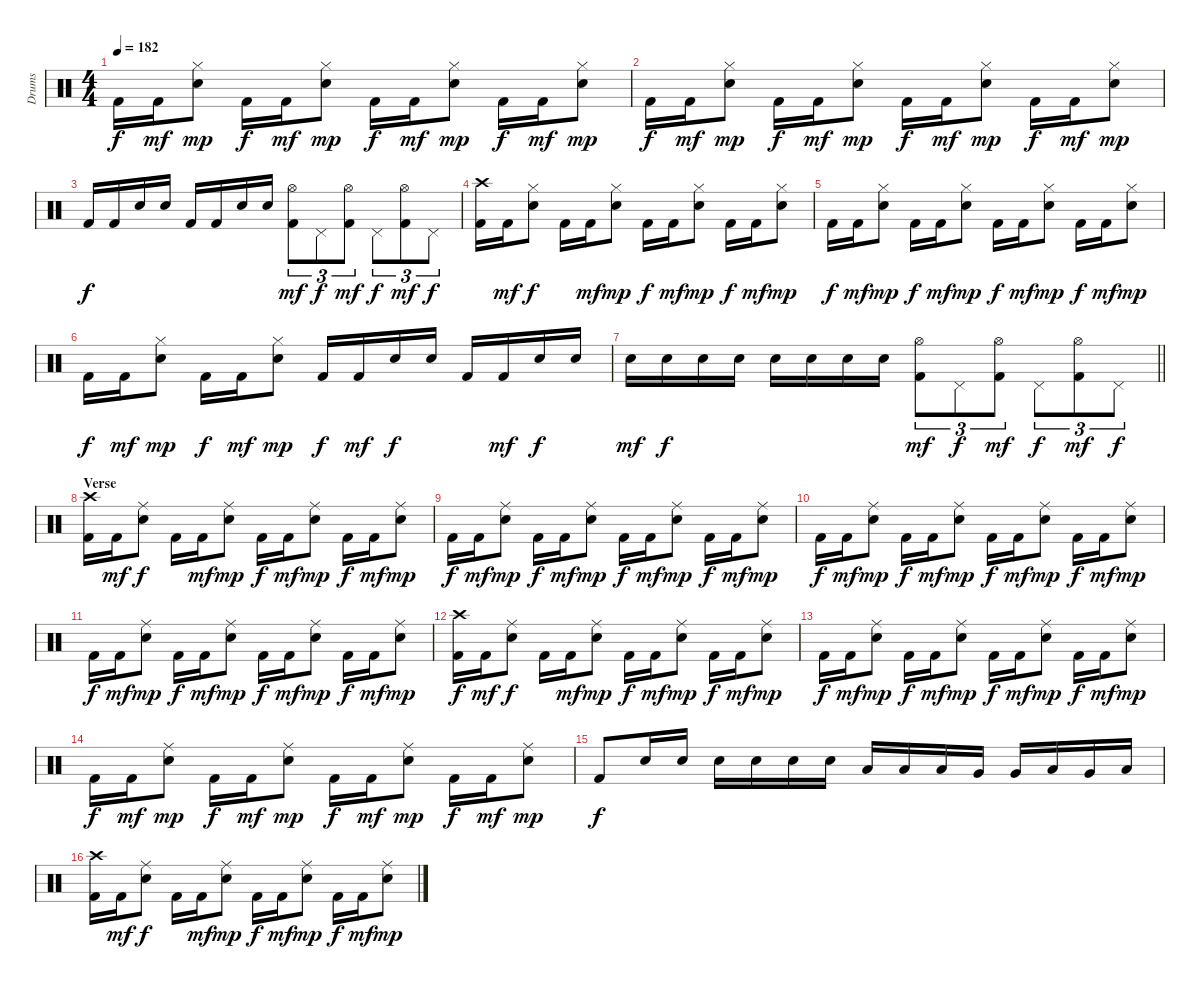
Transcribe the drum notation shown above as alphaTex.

\track ("Drums" "Drums") {instrument percussion}
\staff {score}
\articulation defaults
\ts (4 4)
\tempo 182
\clef neutral
\ks c "Kick (hit) 2".16{dy f} "Kick (hit) 2".16{dy mf}
("Hi-Hat (closed)" "Snare (hit) 2").8{dy mp} "Kick (hit) 2".16{dy f} "Kick (hit) 2".16{dy mf} ("Hi-Hat (closed)" "Snare (hit) 2").8{dy mp} "Kick (hit) 2".16{dy f} "Kick (hit) 2".16{dy mf} ("Hi-Hat (closed)" "Snare (hit) 2").8{dy mp} "Kick (hit) 2".16{dy f} "Kick (hit) 2".16{dy mf} ("Hi-Hat (closed)" "Snare (hit) 2").8{dy mp} |
"Kick (hit) 2".16{dy f} "Kick (hit) 2".16{dy mf} ("Hi-Hat (closed)" "Snare (hit) 2").8{dy mp} "Kick (hit) 2".16{dy f} "Kick (hit) 2".16{dy mf} ("Hi-Hat (closed)" "Snare (hit) 2").8{dy mp} "Kick (hit) 2".16{dy f} "Kick (hit) 2".16{dy mf} ("Hi-Hat (closed)" "Snare (hit) 2").8{dy mp} "Kick (hit) 2".16{dy f} "Kick (hit) 2".16{dy mf} ("Hi-Hat (closed)" "Snare (hit) 2").8{dy mp} |
"Kick (hit) 2".16{dy f} "Kick (hit) 2".16 "Snare (hit) 2".16 "Snare (hit) 2".16 "Kick (hit) 2".16 "Kick (hit) 2".16 "Snare (hit) 2".16 "Snare (hit) 2".16 ("Hi-Hat (open)" "Kick (hit) 2").8{tu (3 2) dy mf} "Pedal Hi-Hat (hit)".8{tu (3 2) dy f} ("Hi-Hat (open)" "Kick (hit) 2").8{tu (3 2) dy mf} "Pedal Hi-Hat (hit)".8{tu (3 2) dy f} ("Hi-Hat (open)" "Kick (hit) 2").8{tu (3 2) dy mf} "Pedal Hi-Hat (hit)".8{tu (3 2) dy f} |
("Crash high (hit)" "Kick (hit) 2").16 "Kick (hit) 2".16{dy mf} ("Hi-Hat (closed)" "Snare (hit) 2").8{dy f} "Kick (hit) 2".16 "Kick (hit) 2".16{dy mf} ("Hi-Hat (closed)" "Snare (hit) 2").8{dy mp} "Kick (hit) 2".16{dy f} "Kick (hit) 2".16{dy mf} ("Hi-Hat (closed)" "Snare (hit) 2").8{dy mp} "Kick (hit) 2".16{dy f} "Kick (hit) 2".16{dy mf} ("Hi-Hat (closed)" "Snare (hit) 2").8{dy mp} |
"Kick (hit) 2".16{dy f} "Kick (hit) 2".16{dy mf} ("Hi-Hat (closed)" "Snare (hit) 2").8{dy mp} "Kick (hit) 2".16{dy f} "Kick (hit) 2".16{dy mf} ("Hi-Hat (closed)" "Snare (hit) 2").8{dy mp} "Kick (hit) 2".16{dy f} "Kick (hit) 2".16{dy mf} ("Hi-Hat (closed)" "Snare (hit) 2").8{dy mp} "Kick (hit) 2".16{dy f} "Kick (hit) 2".16{dy mf} ("Hi-Hat (closed)" "Snare (hit) 2").8{dy mp} |
"Kick (hit) 2".16{dy f} "Kick (hit) 2".16{dy mf} ("Hi-Hat (closed)" "Snare (hit) 2").8{dy mp} "Kick (hit) 2".16{dy f} "Kick (hit) 2".16{dy mf} ("Hi-Hat (closed)" "Snare (hit) 2").8{dy mp} "Kick (hit) 2".16{dy f} "Kick (hit) 2".16{dy mf} "Snare (hit) 2".16{dy f} "Snare (hit) 2".16 "Kick (hit) 2".16 "Kick (hit) 2".16{dy mf} "Snare (hit) 2".16{dy f} "Snare (hit) 2".16 |
\barLineRight lightlight "Snare (hit) 2".16{dy mf} "Snare (hit) 2".16{dy f} "Snare (hit) 2".16 "Snare (hit) 2".16 "Snare (hit) 2".16 "Snare (hit) 2".16 "Snare (hit) 2".16 "Snare (hit) 2".16
("Hi-Hat (open)" "Kick (hit) 2").8{tu (3 2) dy mf} "Pedal Hi-Hat (hit)".8{tu (3 2) dy f} ("Hi-Hat (open)" "Kick (hit) 2").8{tu (3 2) dy mf} "Pedal Hi-Hat (hit)".8{tu (3 2) dy f} ("Hi-Hat (open)" "Kick (hit) 2").8{tu (3 2) dy mf} "Pedal Hi-Hat (hit)".8{tu (3 2) dy f} |
\section ("" "Verse")
("Crash high (hit)" "Kick (hit) 2").16 "Kick (hit) 2".16{dy mf} ("Ride (middle)" "Snare (hit) 2").8{dy f} "Kick (hit) 2".16 "Kick (hit) 2".16{dy mf} ("Ride (middle)" "Snare (hit) 2").8{dy mp} "Kick (hit) 2".16{dy f} "Kick (hit) 2".16{dy mf} ("Ride (middle)" "Snare (hit) 2").8{dy mp} "Kick (hit) 2".16{dy f} "Kick (hit) 2".16{dy mf} ("Ride (middle)" "Snare (hit) 2").8{dy mp} |
\ks aminor "Kick (hit) 2".16{dy f} "Kick (hit) 2".16{dy mf}
("Ride (middle)" "Snare (hit) 2").8{dy mp} "Kick (hit) 2".16{dy f} "Kick (hit) 2".16{dy mf} ("Ride (middle)" "Snare (hit) 2").8{dy mp} "Kick (hit) 2".16{dy f} "Kick (hit) 2".16{dy mf} ("Ride (middle)" "Snare (hit) 2").8{dy mp} "Kick (hit) 2".16{dy f} "Kick (hit) 2".16{dy mf} ("Ride (middle)" "Snare (hit) 2").8{dy mp} |
\ks c "Kick (hit) 2".16{dy f} "Kick (hit) 2".16{dy mf}
("Ride (middle)" "Snare (hit) 2").8{dy mp} "Kick (hit) 2".16{dy f} "Kick (hit) 2".16{dy mf} ("Ride (middle)" "Snare (hit) 2").8{dy mp} "Kick (hit) 2".16{dy f} "Kick (hit) 2".16{dy mf} ("Ride (middle)" "Snare (hit) 2").8{dy mp} "Kick (hit) 2".16{dy f} "Kick (hit) 2".16{dy mf} ("Ride (middle)" "Snare (hit) 2").8{dy mp} |
"Kick (hit) 2".16{dy f} "Kick (hit) 2".16{dy mf} ("Ride (middle)" "Snare (hit) 2").8{dy mp} "Kick (hit) 2".16{dy f} "Kick (hit) 2".16{dy mf} ("Ride (middle)" "Snare (hit) 2").8{dy mp} "Kick (hit) 2".16{dy f} "Kick (hit) 2".16{dy mf} ("Ride (middle)" "Snare (hit) 2").8{dy mp} "Kick (hit) 2".16{dy f} "Kick (hit) 2".16{dy mf} ("Ride (middle)" "Snare (hit) 2").8{dy mp} |
("Crash high (hit)" "Kick (hit) 2").16{dy f} "Kick (hit) 2".16{dy mf} ("Ride (middle)" "Snare (hit) 2").8{dy f} "Kick (hit) 2".16 "Kick (hit) 2".16{dy mf} ("Ride (middle)" "Snare (hit) 2").8{dy mp} "Kick (hit) 2".16{dy f} "Kick (hit) 2".16{dy mf} ("Ride (middle)" "Snare (hit) 2").8{dy mp} "Kick (hit) 2".16{dy f} "Kick (hit) 2".16{dy mf} ("Ride (middle)" "Snare (hit) 2").8{dy mp} |
"Kick (hit) 2".16{dy f} "Kick (hit) 2".16{dy mf} ("Ride (middle)" "Snare (hit) 2").8{dy mp} "Kick (hit) 2".16{dy f} "Kick (hit) 2".16{dy mf} ("Ride (middle)" "Snare (hit) 2").8{dy mp} "Kick (hit) 2".16{dy f} "Kick (hit) 2".16{dy mf} ("Ride (middle)" "Snare (hit) 2").8{dy mp} "Kick (hit) 2".16{dy f} "Kick (hit) 2".16{dy mf} ("Ride (middle)" "Snare (hit) 2").8{dy mp} |
"Kick (hit) 2".16{dy f} "Kick (hit) 2".16{dy mf} ("Ride (middle)" "Snare (hit) 2").8{dy mp} "Kick (hit) 2".16{dy f} "Kick (hit) 2".16{dy mf} ("Ride (middle)" "Snare (hit) 2").8{dy mp} "Kick (hit) 2".16{dy f} "Kick (hit) 2".16{dy mf} ("Ride (middle)" "Snare (hit) 2").8{dy mp} "Kick (hit) 2".16{dy f} "Kick (hit) 2".16{dy mf} ("Ride (middle)" "Snare (hit) 2").8{dy mp} |
"Kick (hit) 2".8{dy f} "Snare (hit) 2".16 "Snare (hit) 2".16 "Snare (hit) 2".16 "Snare (hit) 2".16 "Snare (hit) 2".16 "Snare (hit) 2".16 "Low Tom (hit)".16 "Low Tom (hit)".16 "Low Tom (hit)".16 "Very Low Tom (hit)".16 "Very Low Tom (hit)".16 "Low Tom (hit)".16 "Very Low Tom (hit)".16 "Low Floor Tom (hit)".16 |
("Crash high (hit)" "Kick (hit) 2").16 "Kick (hit) 2".16{dy mf} ("Ride (middle)" "Snare (hit) 2").8{dy f} "Kick (hit) 2".16 "Kick (hit) 2".16{dy mf} ("Ride (middle)" "Snare (hit) 2").8{dy mp} "Kick (hit) 2".16{dy f} "Kick (hit) 2".16{dy mf} ("Ride (middle)" "Snare (hit) 2").8{dy mp} "Kick (hit) 2".16{dy f} "Kick (hit) 2".16{dy mf} ("Ride (middle)" "Snare (hit) 2").8{dy mp}
